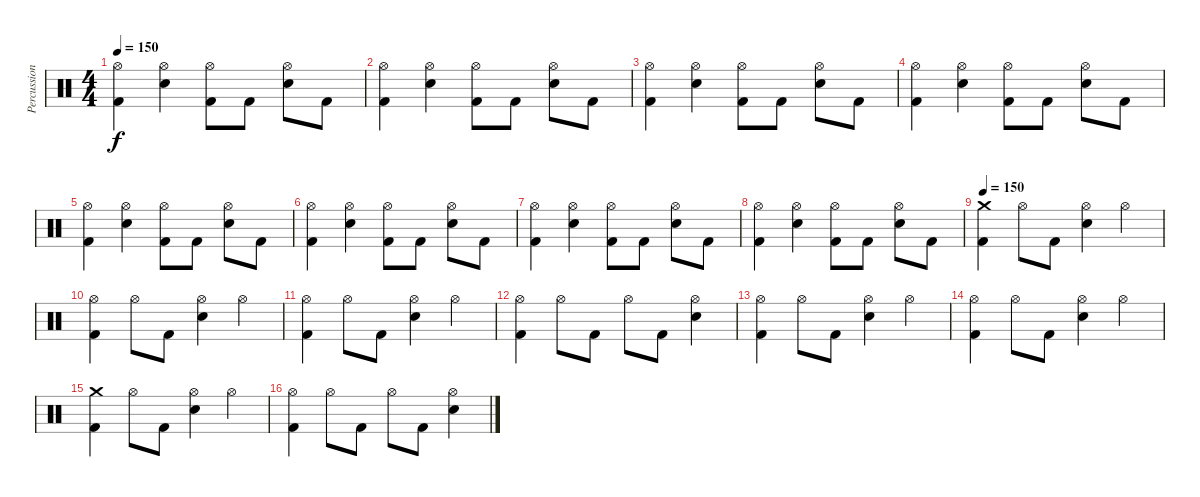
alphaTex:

\track ("Percussions" "Percussion") {instrument percussion}
\staff {score}
\articulation defaults
\ts (4 4)
\tempo 150
\clef neutral
\ks c
("Kick (hit) 2" "Hi-Hat (open)").4{dy f} ("Snare (hit) 2" "Hi-Hat (open)").4 ("Kick (hit) 2" "Hi-Hat (open)").8 "Kick (hit) 2".8 ("Snare (hit) 2" "Hi-Hat (open)").8 "Kick (hit) 2".8 |
("Kick (hit) 2" "Hi-Hat (open)").4 ("Snare (hit) 2" "Hi-Hat (open)").4 ("Kick (hit) 2" "Hi-Hat (open)").8 "Kick (hit) 2".8 ("Snare (hit) 2" "Hi-Hat (open)").8 "Kick (hit) 2".8 |
("Kick (hit) 2" "Hi-Hat (open)").4 ("Snare (hit) 2" "Hi-Hat (open)").4 ("Kick (hit) 2" "Hi-Hat (open)").8 "Kick (hit) 2".8 ("Snare (hit) 2" "Hi-Hat (open)").8 "Kick (hit) 2".8 |
("Kick (hit) 2" "Hi-Hat (open)").4 ("Snare (hit) 2" "Hi-Hat (open)").4 ("Kick (hit) 2" "Hi-Hat (open)").8 "Kick (hit) 2".8 ("Snare (hit) 2" "Hi-Hat (open)").8 "Kick (hit) 2".8 |
("Kick (hit) 2" "Hi-Hat (open)").4 ("Snare (hit) 2" "Hi-Hat (open)").4 ("Kick (hit) 2" "Hi-Hat (open)").8 "Kick (hit) 2".8 ("Snare (hit) 2" "Hi-Hat (open)").8 "Kick (hit) 2".8 |
("Kick (hit) 2" "Hi-Hat (open)").4 ("Snare (hit) 2" "Hi-Hat (open)").4 ("Kick (hit) 2" "Hi-Hat (open)").8 "Kick (hit) 2".8 ("Snare (hit) 2" "Hi-Hat (open)").8 "Kick (hit) 2".8 |
("Kick (hit) 2" "Hi-Hat (open)").4 ("Snare (hit) 2" "Hi-Hat (open)").4 ("Kick (hit) 2" "Hi-Hat (open)").8 "Kick (hit) 2".8 ("Snare (hit) 2" "Hi-Hat (open)").8 "Kick (hit) 2".8 |
("Kick (hit) 2" "Hi-Hat (open)").4 ("Snare (hit) 2" "Hi-Hat (open)").4 ("Kick (hit) 2" "Hi-Hat (open)").8 "Kick (hit) 2".8 ("Snare (hit) 2" "Hi-Hat (open)").8 "Kick (hit) 2".8 |
\tempo 150
("Kick (hit) 2" "Crash medium (hit)").4 "Hi-Hat (open)".8 "Kick (hit) 2".8 ("Snare (hit) 2" "Hi-Hat (open)").4 "Hi-Hat (open)".4 |
("Kick (hit) 2" "Hi-Hat (open)").4 "Hi-Hat (open)".8 "Kick (hit) 2".8 ("Snare (hit) 2" "Hi-Hat (open)").4 "Hi-Hat (open)".4 |
("Kick (hit) 2" "Hi-Hat (open)").4 "Hi-Hat (open)".8 "Kick (hit) 2".8 ("Snare (hit) 2" "Hi-Hat (open)").4 "Hi-Hat (open)".4 |
("Kick (hit) 2" "Hi-Hat (open)").4 "Hi-Hat (open)".8 "Kick (hit) 2".8 "Hi-Hat (open)".8 "Kick (hit) 2".8 ("Snare (hit) 2" "Hi-Hat (open)").4 |
("Kick (hit) 2" "Hi-Hat (open)").4 "Hi-Hat (open)".8 "Kick (hit) 2".8 ("Snare (hit) 2" "Hi-Hat (open)").4 "Hi-Hat (open)".4 |
("Kick (hit) 2" "Hi-Hat (open)").4 "Hi-Hat (open)".8 "Kick (hit) 2".8 ("Snare (hit) 2" "Hi-Hat (open)").4 "Hi-Hat (open)".4 |
("Kick (hit) 2" "Crash medium (hit)").4 "Hi-Hat (open)".8 "Kick (hit) 2".8 ("Snare (hit) 2" "Hi-Hat (open)").4 "Hi-Hat (open)".4 |
("Kick (hit) 2" "Hi-Hat (open)").4 "Hi-Hat (open)".8 "Kick (hit) 2".8 "Hi-Hat (open)".8 "Kick (hit) 2".8 ("Snare (hit) 2" "Hi-Hat (open)").4
